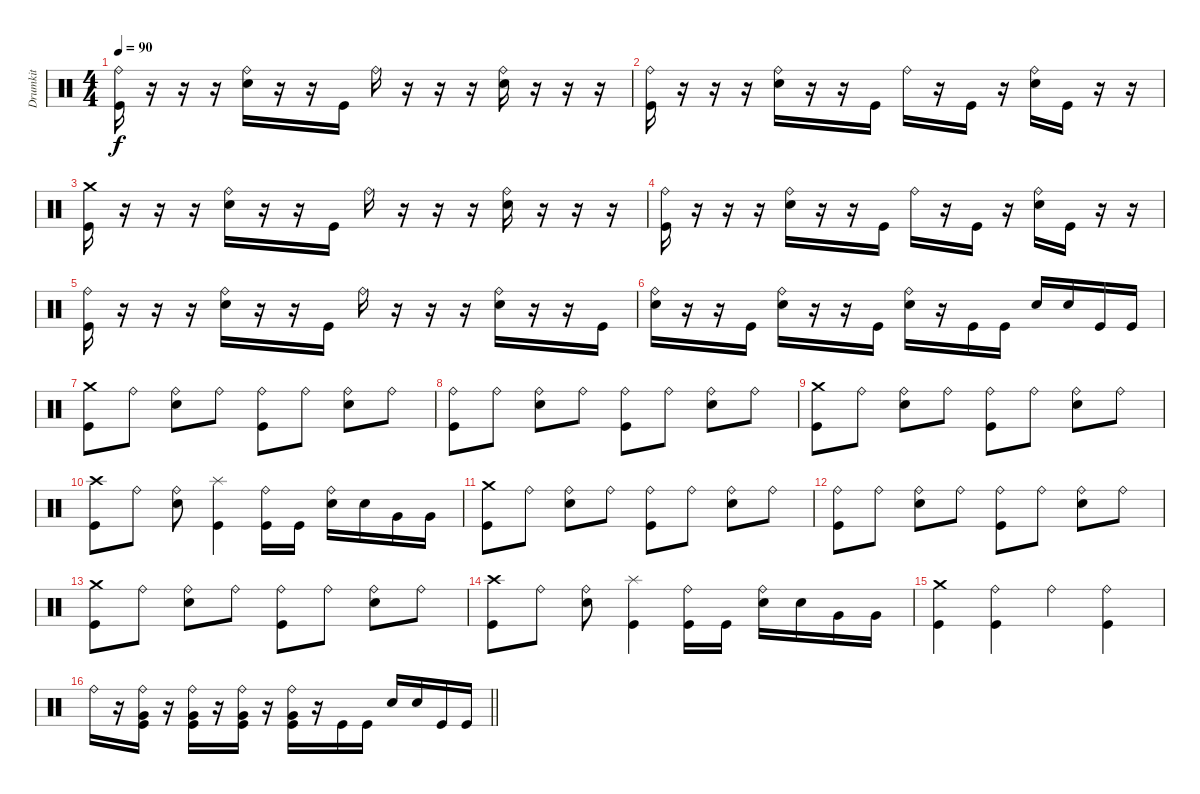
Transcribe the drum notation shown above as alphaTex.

\track ("Drumkit" "Drumkit") {instrument percussion}
\staff {score}
\articulation defaults
\ts (4 4)
\tempo 90
\clef neutral
\ks c
("Ride (bell)" "Kick (hit)").16{dy f} r.16 r.16 r.16 ("Ride (bell)" "Snare (hit) 2").16 r.16 r.16 "Kick (hit)".16 "Ride (bell)".16 r.16 r.16 r.16 ("Ride (bell)" "Snare (hit) 2").16 r.16 r.16 r.16 |
("Ride (bell)" "Kick (hit)").16 r.16 r.16 r.16 ("Ride (bell)" "Snare (hit) 2").16 r.16 r.16 "Kick (hit)".16 "Ride (bell)".16 r.16 "Kick (hit)".16 r.16 ("Ride (bell)" "Snare (hit) 2").16 "Kick (hit)".16 r.16 r.16 |
("Crash medium (hit)" "Kick (hit)").16 r.16 r.16 r.16 ("Ride (bell)" "Snare (hit) 2").16 r.16 r.16 "Kick (hit)".16 "Ride (bell)".16 r.16 r.16 r.16 ("Ride (bell)" "Snare (hit) 2").16 r.16 r.16 r.16 |
("Ride (bell)" "Kick (hit)").16 r.16 r.16 r.16 ("Ride (bell)" "Snare (hit) 2").16 r.16 r.16 "Kick (hit)".16 "Ride (bell)".16 r.16 "Kick (hit)".16 r.16 ("Ride (bell)" "Snare (hit) 2").16 "Kick (hit)".16 r.16 r.16 |
("Ride (bell)" "Kick (hit)").16 r.16 r.16 r.16 ("Ride (bell)" "Snare (hit) 2").16 r.16 r.16 "Kick (hit)".16 "Ride (bell)".16 r.16 r.16 r.16 ("Ride (bell)" "Snare (hit) 2").16 r.16 r.16 "Kick (hit)".16 |
("Ride (bell)" "Snare (hit) 2").16 r.16 r.16 "Kick (hit)".16 ("Ride (bell)" "Snare (hit) 2").16 r.16 r.16 "Kick (hit)".16 ("Ride (bell)" "Snare (hit) 2").16 r.16 "Kick (hit)".16 "Kick (hit)".16 "Snare (hit) 2".16 "Snare (hit) 2".16 "Kick (hit)".16 "Kick (hit)".16 |
("Crash medium (hit)" "Kick (hit)").8 "Ride (bell)".8 ("Ride (bell)" "Snare (hit) 2").8 "Ride (bell)".8 ("Ride (bell)" "Kick (hit)").8 "Ride (bell)".8 ("Ride (bell)" "Snare (hit) 2").8 "Ride (bell)".8 |
("Ride (bell)" "Kick (hit)").8 "Ride (bell)".8 ("Ride (bell)" "Snare (hit) 2").8 "Ride (bell)".8 ("Ride (bell)" "Kick (hit)").8 "Ride (bell)".8 ("Ride (bell)" "Snare (hit) 2").8 "Ride (bell)".8 |
("Crash medium (hit)" "Kick (hit)").8 "Ride (bell)".8 ("Ride (bell)" "Snare (hit) 2").8 "Ride (bell)".8 ("Ride (bell)" "Kick (hit)").8 "Ride (bell)".8 ("Ride (bell)" "Snare (hit) 2").8 "Ride (bell)".8 |
("Crash high (hit)" "Kick (hit)").8 "Ride (bell)".8 ("Ride (bell)" "Snare (hit) 2").8 ("Splash (hit)" "Kick (hit)").4 ("Ride (bell)" "Kick (hit)").16 "Kick (hit)".16 ("Ride (bell)" "Snare (hit) 2").16 "Snare (hit) 2".16 "Very Low Tom (hit)".16 "Very Low Tom (hit)".16 |
("Crash medium (hit)" "Kick (hit)").8 "Ride (bell)".8 ("Ride (bell)" "Snare (hit) 2").8 "Ride (bell)".8 ("Ride (bell)" "Kick (hit)").8 "Ride (bell)".8 ("Ride (bell)" "Snare (hit) 2").8 "Ride (bell)".8 |
("Ride (bell)" "Kick (hit)").8 "Ride (bell)".8 ("Ride (bell)" "Snare (hit) 2").8 "Ride (bell)".8 ("Ride (bell)" "Kick (hit)").8 "Ride (bell)".8 ("Ride (bell)" "Snare (hit) 2").8 "Ride (bell)".8 |
("Crash medium (hit)" "Kick (hit)").8 "Ride (bell)".8 ("Ride (bell)" "Snare (hit) 2").8 "Ride (bell)".8 ("Ride (bell)" "Kick (hit)").8 "Ride (bell)".8 ("Ride (bell)" "Snare (hit) 2").8 "Ride (bell)".8 |
("Crash high (hit)" "Kick (hit)").8 "Ride (bell)".8 ("Ride (bell)" "Snare (hit) 2").8 ("Splash (hit)" "Kick (hit)").4 ("Ride (bell)" "Kick (hit)").16 "Kick (hit)".16 ("Ride (bell)" "Snare (hit) 2").16 "Snare (hit) 2".16 "Very Low Tom (hit)".16 "Very Low Tom (hit)".16 |
("Crash medium (hit)" "Kick (hit)").4 ("Ride (bell)" "Kick (hit)").4 "Ride (bell)".4 ("Ride (bell)" "Kick (hit)").4 |
\barLineRight lightlight "Ride (bell)".16
r.16 ("Ride (bell)" "Kick (hit)" "Very Low Tom (hit)").16 r.16 ("Ride (bell)" "Kick (hit)" "Very Low Tom (hit)").16 r.16 ("Ride (bell)" "Kick (hit)" "Very Low Tom (hit)").16 r.16 ("Ride (bell)" "Kick (hit)" "Very Low Tom (hit)").16 r.16 "Kick (hit)".16 "Kick (hit)".16 "Snare (hit) 2".16 "Snare (hit) 2".16 "Kick (hit)".16 "Kick (hit)".16
